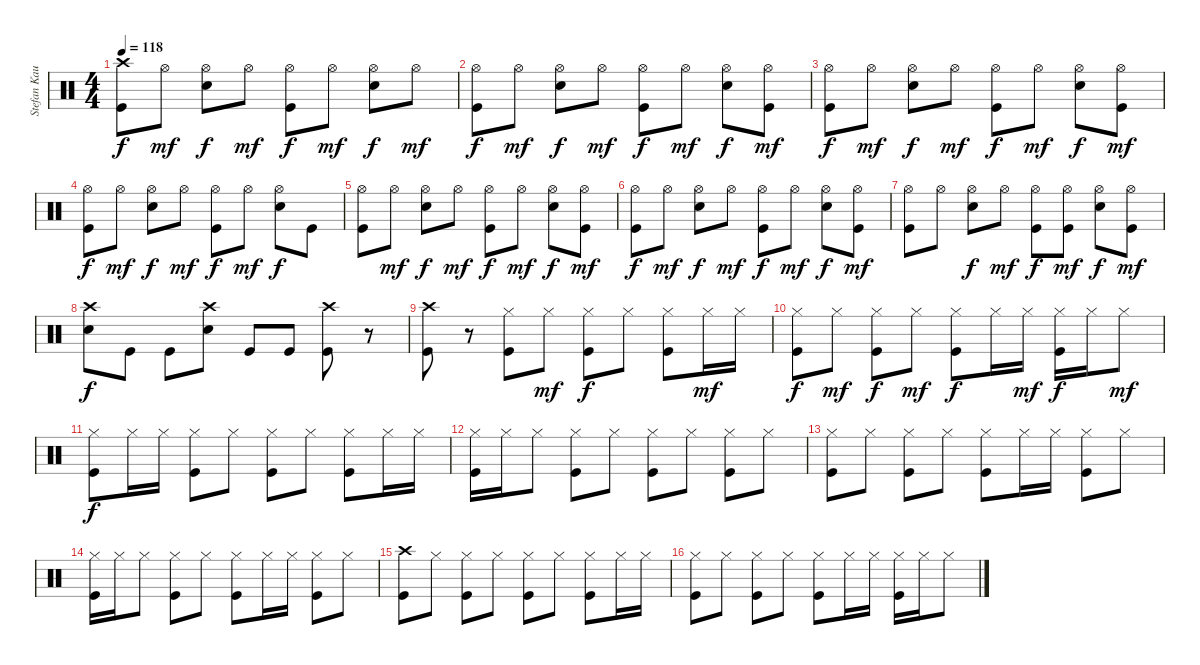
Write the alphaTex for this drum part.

\track ("Stefan Kaufmann" "Stefan Kau") {instrument percussion}
\staff {score}
\articulation defaults
\ts (4 4)
\tempo 118
\clef neutral
\ks c
("Crash high (hit)" "Kick (hit)").8{dy f} "Hi-Hat (open)".8{dy mf} ("Hi-Hat (open)" "Snare (hit) 2").8{dy f} "Hi-Hat (open)".8{dy mf} ("Hi-Hat (open)" "Kick (hit)").8{dy f} "Hi-Hat (open)".8{dy mf} ("Hi-Hat (open)" "Snare (hit) 2").8{dy f} "Hi-Hat (open)".8{dy mf} |
("Hi-Hat (open)" "Kick (hit)").8{dy f} "Hi-Hat (open)".8{dy mf} ("Hi-Hat (open)" "Snare (hit) 2").8{dy f} "Hi-Hat (open)".8{dy mf} ("Hi-Hat (open)" "Kick (hit)").8{dy f} "Hi-Hat (open)".8{dy mf} ("Hi-Hat (open)" "Snare (hit) 2").8{dy f} ("Hi-Hat (open)" "Kick (hit)").8{dy mf} |
("Hi-Hat (open)" "Kick (hit)").8{dy f} "Hi-Hat (open)".8{dy mf} ("Hi-Hat (open)" "Snare (hit) 2").8{dy f} "Hi-Hat (open)".8{dy mf} ("Hi-Hat (open)" "Kick (hit)").8{dy f} "Hi-Hat (open)".8{dy mf} ("Hi-Hat (open)" "Snare (hit) 2").8{dy f} ("Hi-Hat (open)" "Kick (hit)").8{dy mf} |
("Hi-Hat (open)" "Kick (hit)").8{dy f} "Hi-Hat (open)".8{dy mf} ("Hi-Hat (open)" "Snare (hit) 2").8{dy f} "Hi-Hat (open)".8{dy mf} ("Hi-Hat (open)" "Kick (hit)").8{dy f} "Hi-Hat (open)".8{dy mf} ("Hi-Hat (open)" "Snare (hit) 2").8{dy f} "Kick (hit)".8 |
("Hi-Hat (open)" "Kick (hit)").8 "Hi-Hat (open)".8{dy mf} ("Hi-Hat (open)" "Snare (hit) 2").8{dy f} "Hi-Hat (open)".8{dy mf} ("Hi-Hat (open)" "Kick (hit)").8{dy f} "Hi-Hat (open)".8{dy mf} ("Hi-Hat (open)" "Snare (hit) 2").8{dy f} ("Hi-Hat (open)" "Kick (hit)").8{dy mf} |
("Hi-Hat (open)" "Kick (hit)").8{dy f} "Hi-Hat (open)".8{dy mf} ("Hi-Hat (open)" "Snare (hit) 2").8{dy f} "Hi-Hat (open)".8{dy mf} ("Hi-Hat (open)" "Kick (hit)").8{dy f} "Hi-Hat (open)".8{dy mf} ("Hi-Hat (open)" "Snare (hit) 2").8{dy f} ("Hi-Hat (open)" "Kick (hit)").8{dy mf} |
("Hi-Hat (open)" "Kick (hit)").8 "Hi-Hat (open)".8 ("Hi-Hat (open)" "Snare (hit) 2").8{dy f} "Hi-Hat (open)".8{dy mf} ("Hi-Hat (open)" "Kick (hit)").8{dy f} ("Hi-Hat (open)" "Kick (hit)").8{dy mf} ("Hi-Hat (open)" "Snare (hit) 2").8{dy f} ("Hi-Hat (open)" "Kick (hit)").8{dy mf} |
("Crash high (hit)" "Snare (hit) 2").8{dy f} "Kick (hit)".8 "Kick (hit)".8 ("Crash high (hit)" "Snare (hit) 2").8 "Kick (hit)".8 "Kick (hit)".8 ("Crash high (hit)" "Kick (hit)").8 r.8 |
("Kick (hit)" "Crash high (hit)").8 r.8 ("Hi-Hat (closed)" "Kick (hit)").8 "Hi-Hat (closed)".8{dy mf} ("Hi-Hat (closed)" "Kick (hit)").8{dy f} "Hi-Hat (closed)".8 ("Hi-Hat (closed)" "Kick (hit)").8 "Hi-Hat (closed)".16{dy mf} "Hi-Hat (closed)".16 |
("Hi-Hat (closed)" "Kick (hit)").8{dy f} "Hi-Hat (closed)".8{dy mf} ("Hi-Hat (closed)" "Kick (hit)").8{dy f} "Hi-Hat (closed)".8{dy mf} ("Hi-Hat (closed)" "Kick (hit)").8{dy f} "Hi-Hat (closed)".16 "Hi-Hat (closed)".16{dy mf} ("Hi-Hat (closed)" "Kick (hit)").16{dy f} "Hi-Hat (closed)".16 "Hi-Hat (closed)".8{dy mf} |
("Hi-Hat (closed)" "Kick (hit)").8{dy f} "Hi-Hat (closed)".16 "Hi-Hat (closed)".16 ("Hi-Hat (closed)" "Kick (hit)").8 "Hi-Hat (closed)".8 ("Hi-Hat (closed)" "Kick (hit)").8 "Hi-Hat (closed)".8 ("Hi-Hat (closed)" "Kick (hit)").8 "Hi-Hat (closed)".16 "Hi-Hat (closed)".16 |
("Hi-Hat (closed)" "Kick (hit)").16 "Hi-Hat (closed)".16 "Hi-Hat (closed)".8 ("Hi-Hat (closed)" "Kick (hit)").8 "Hi-Hat (closed)".8 ("Hi-Hat (closed)" "Kick (hit)").8 "Hi-Hat (closed)".8 ("Hi-Hat (closed)" "Kick (hit)").8 "Hi-Hat (closed)".8 |
("Hi-Hat (closed)" "Kick (hit)").8 "Hi-Hat (closed)".8 ("Hi-Hat (closed)" "Kick (hit)").8 "Hi-Hat (closed)".8 ("Hi-Hat (closed)" "Kick (hit)").8 "Hi-Hat (closed)".16 "Hi-Hat (closed)".16 ("Hi-Hat (closed)" "Kick (hit)").8 "Hi-Hat (closed)".8 |
("Hi-Hat (closed)" "Kick (hit)").16 "Hi-Hat (closed)".16 "Hi-Hat (closed)".8 ("Hi-Hat (closed)" "Kick (hit)").8 "Hi-Hat (closed)".8 ("Hi-Hat (closed)" "Kick (hit)").8 "Hi-Hat (closed)".16 "Hi-Hat (closed)".16 ("Hi-Hat (closed)" "Kick (hit)").8 "Hi-Hat (closed)".8 |
("Crash high (hit)" "Kick (hit)").8 "Hi-Hat (closed)".8 ("Hi-Hat (closed)" "Kick (hit)").8 "Hi-Hat (closed)".8 ("Hi-Hat (closed)" "Kick (hit)").8 "Hi-Hat (closed)".8 ("Hi-Hat (closed)" "Kick (hit)").8 "Hi-Hat (closed)".16 "Hi-Hat (closed)".16 |
("Hi-Hat (closed)" "Kick (hit)").8 "Hi-Hat (closed)".8 ("Hi-Hat (closed)" "Kick (hit)").8 "Hi-Hat (closed)".8 ("Hi-Hat (closed)" "Kick (hit)").8 "Hi-Hat (closed)".16 "Hi-Hat (closed)".16 ("Hi-Hat (closed)" "Kick (hit)").16 "Hi-Hat (closed)".16 "Hi-Hat (closed)".8
